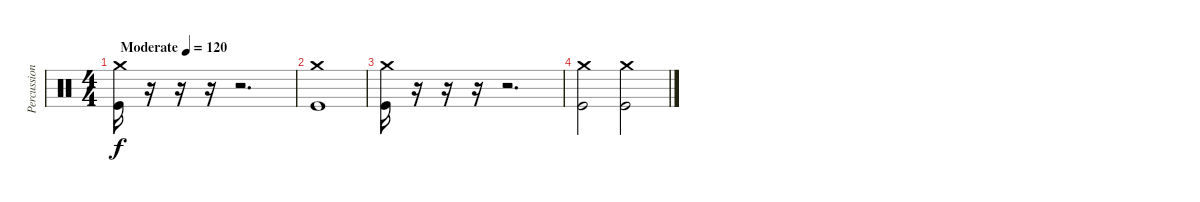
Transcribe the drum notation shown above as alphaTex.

\track ("Percussion" "Percussion") {instrument percussion}
\staff {score}
\articulation defaults
\ts (4 4)
\tempo (120 "Moderate")
\clef neutral
\ks c
("Crash medium (hit)" "Kick (hit)").16{dy f} r.16{volume 0} r.16 r.16 r.2{d} |
("Crash medium (hit)" "Kick (hit)").1{volume 13} |
("Crash medium (hit)" "Kick (hit)").16 r.16{volume 0} r.16 r.16 r.2{d} |
("Crash medium (hit)" "Kick (hit)").2{volume 13} ("Crash medium (hit)" "Kick (hit)").2
